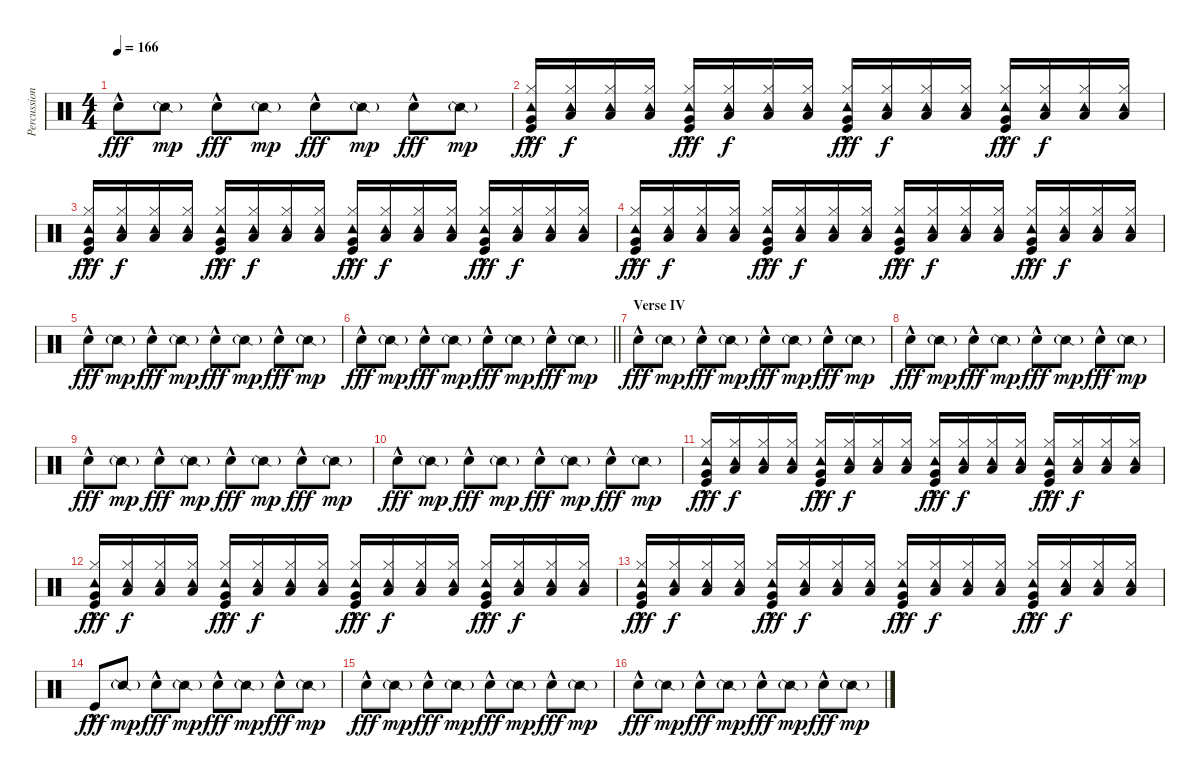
\track ("Percussion" "Percussion") {instrument percussion}
\staff {score}
\articulation defaults
\ts (4 4)
\tempo 166
\clef neutral
\ks c "Snare (hit) 2"{hac}.8{dy fff} "Snare (side stick) 2"{g}.8{dy mp} "Snare (hit) 2"{hac}.8{dy fff} "Snare (side stick) 2"{g}.8{dy mp} "Snare (hit) 2"{hac}.8{dy fff} "Snare (side stick) 2"{g}.8{dy mp} "Snare (hit) 2"{hac}.8{dy fff} "Snare (side stick) 2"{g}.8{dy mp}
|
("Tambourine (hit)" "Hi-Hat (closed)" "Very Low Tom (hit)" "Kick (hit)"{hac}).16{dy fff} ("Tambourine (hit)" "Hi-Hat (closed)" "Low Floor Tom (hit)").16{dy f} ("Tambourine (hit)" "Hi-Hat (closed)" "Low Floor Tom (hit)").16 ("Tambourine (hit)" "Hi-Hat (closed)" "Low Floor Tom (hit)").16 ("Tambourine (hit)" "Hi-Hat (closed)" "Very Low Tom (hit)" "Kick (hit)"{hac}).16{dy fff} ("Tambourine (hit)" "Hi-Hat (closed)" "Low Floor Tom (hit)").16{dy f} ("Tambourine (hit)" "Hi-Hat (closed)" "Low Floor Tom (hit)").16 ("Tambourine (hit)" "Hi-Hat (closed)" "Low Floor Tom (hit)").16 ("Tambourine (hit)" "Hi-Hat (closed)" "Very Low Tom (hit)" "Kick (hit)"{hac}).16{dy fff} ("Tambourine (hit)" "Hi-Hat (closed)" "Low Floor Tom (hit)").16{dy f} ("Tambourine (hit)" "Hi-Hat (closed)" "Low Floor Tom (hit)").16 ("Tambourine (hit)" "Hi-Hat (closed)" "Low Floor Tom (hit)").16 ("Tambourine (hit)" "Hi-Hat (closed)" "Very Low Tom (hit)" "Kick (hit)"{hac}).16{dy fff} ("Tambourine (hit)" "Hi-Hat (closed)" "Low Floor Tom (hit)").16{dy f} ("Tambourine (hit)" "Hi-Hat (closed)" "Low Floor Tom (hit)").16 ("Tambourine (hit)" "Hi-Hat (closed)" "Low Floor Tom (hit)").16 |
("Tambourine (hit)" "Hi-Hat (closed)" "Very Low Tom (hit)" "Kick (hit)"{hac}).16{dy fff} ("Tambourine (hit)" "Hi-Hat (closed)" "Low Floor Tom (hit)").16{dy f} ("Tambourine (hit)" "Hi-Hat (closed)" "Low Floor Tom (hit)").16 ("Tambourine (hit)" "Hi-Hat (closed)" "Low Floor Tom (hit)").16 ("Tambourine (hit)" "Hi-Hat (closed)" "Very Low Tom (hit)" "Kick (hit)"{hac}).16{dy fff} ("Tambourine (hit)" "Hi-Hat (closed)" "Low Floor Tom (hit)").16{dy f} ("Tambourine (hit)" "Hi-Hat (closed)" "Low Floor Tom (hit)").16 ("Tambourine (hit)" "Hi-Hat (closed)" "Low Floor Tom (hit)").16 ("Tambourine (hit)" "Hi-Hat (closed)" "Very Low Tom (hit)" "Kick (hit)"{hac}).16{dy fff} ("Tambourine (hit)" "Hi-Hat (closed)" "Low Floor Tom (hit)").16{dy f} ("Tambourine (hit)" "Hi-Hat (closed)" "Low Floor Tom (hit)").16 ("Tambourine (hit)" "Hi-Hat (closed)" "Low Floor Tom (hit)").16 ("Tambourine (hit)" "Hi-Hat (closed)" "Very Low Tom (hit)" "Kick (hit)"{hac}).16{dy fff} ("Tambourine (hit)" "Hi-Hat (closed)" "Low Floor Tom (hit)").16{dy f} ("Tambourine (hit)" "Hi-Hat (closed)" "Low Floor Tom (hit)").16 ("Tambourine (hit)" "Hi-Hat (closed)" "Low Floor Tom (hit)").16 |
("Tambourine (hit)" "Hi-Hat (closed)" "Very Low Tom (hit)" "Kick (hit)"{hac}).16{dy fff} ("Tambourine (hit)" "Hi-Hat (closed)" "Low Floor Tom (hit)").16{dy f} ("Tambourine (hit)" "Hi-Hat (closed)" "Low Floor Tom (hit)").16 ("Tambourine (hit)" "Hi-Hat (closed)" "Low Floor Tom (hit)").16 ("Tambourine (hit)" "Hi-Hat (closed)" "Very Low Tom (hit)" "Kick (hit)"{hac}).16{dy fff} ("Tambourine (hit)" "Hi-Hat (closed)" "Low Floor Tom (hit)").16{dy f} ("Tambourine (hit)" "Hi-Hat (closed)" "Low Floor Tom (hit)").16 ("Tambourine (hit)" "Hi-Hat (closed)" "Low Floor Tom (hit)").16 ("Tambourine (hit)" "Hi-Hat (closed)" "Very Low Tom (hit)" "Kick (hit)"{hac}).16{dy fff} ("Tambourine (hit)" "Hi-Hat (closed)" "Low Floor Tom (hit)").16{dy f} ("Tambourine (hit)" "Hi-Hat (closed)" "Low Floor Tom (hit)").16 ("Tambourine (hit)" "Hi-Hat (closed)" "Low Floor Tom (hit)").16 ("Tambourine (hit)" "Hi-Hat (closed)" "Very Low Tom (hit)" "Kick (hit)"{hac}).16{dy fff} ("Tambourine (hit)" "Hi-Hat (closed)" "Low Floor Tom (hit)").16{dy f} ("Tambourine (hit)" "Hi-Hat (closed)" "Low Floor Tom (hit)").16 ("Tambourine (hit)" "Hi-Hat (closed)" "Low Floor Tom (hit)").16 |
"Snare (hit) 2"{hac}.8{dy fff} "Snare (side stick) 2"{g}.8{dy mp} "Snare (hit) 2"{hac}.8{dy fff} "Snare (side stick) 2"{g}.8{dy mp} "Snare (hit) 2"{hac}.8{dy fff} "Snare (side stick) 2"{g}.8{dy mp} "Snare (hit) 2"{hac}.8{dy fff} "Snare (side stick) 2"{g}.8{dy mp} |
\barLineRight lightlight "Snare (hit) 2"{hac}.8{dy fff} "Snare (side stick) 2"{g}.8{dy mp} "Snare (hit) 2"{hac}.8{dy fff} "Snare (side stick) 2"{g}.8{dy mp} "Snare (hit) 2"{hac}.8{dy fff} "Snare (side stick) 2"{g}.8{dy mp} "Snare (hit) 2"{hac}.8{dy fff} "Snare (side stick) 2"{g}.8{dy mp}
|
\section ("" "Verse IV")
"Snare (hit) 2"{hac}.8{dy fff} "Snare (side stick) 2"{g}.8{dy mp} "Snare (hit) 2"{hac}.8{dy fff} "Snare (side stick) 2"{g}.8{dy mp} "Snare (hit) 2"{hac}.8{dy fff} "Snare (side stick) 2"{g}.8{dy mp} "Snare (hit) 2"{hac}.8{dy fff} "Snare (side stick) 2"{g}.8{dy mp} |
"Snare (hit) 2"{hac}.8{dy fff} "Snare (side stick) 2"{g}.8{dy mp} "Snare (hit) 2"{hac}.8{dy fff} "Snare (side stick) 2"{g}.8{dy mp} "Snare (hit) 2"{hac}.8{dy fff} "Snare (side stick) 2"{g}.8{dy mp} "Snare (hit) 2"{hac}.8{dy fff} "Snare (side stick) 2"{g}.8{dy mp} |
"Snare (hit) 2"{hac}.8{dy fff} "Snare (side stick) 2"{g}.8{dy mp} "Snare (hit) 2"{hac}.8{dy fff} "Snare (side stick) 2"{g}.8{dy mp} "Snare (hit) 2"{hac}.8{dy fff} "Snare (side stick) 2"{g}.8{dy mp} "Snare (hit) 2"{hac}.8{dy fff} "Snare (side stick) 2"{g}.8{dy mp} |
"Snare (hit) 2"{hac}.8{dy fff} "Snare (side stick) 2"{g}.8{dy mp} "Snare (hit) 2"{hac}.8{dy fff} "Snare (side stick) 2"{g}.8{dy mp} "Snare (hit) 2"{hac}.8{dy fff} "Snare (side stick) 2"{g}.8{dy mp} "Snare (hit) 2"{hac}.8{dy fff} "Snare (side stick) 2"{g}.8{dy mp} |
("Tambourine (hit)" "Hi-Hat (closed)" "Very Low Tom (hit)" "Kick (hit)"{hac}).16{dy fff} ("Tambourine (hit)" "Hi-Hat (closed)" "Low Floor Tom (hit)").16{dy f} ("Tambourine (hit)" "Hi-Hat (closed)" "Low Floor Tom (hit)").16 ("Tambourine (hit)" "Hi-Hat (closed)" "Low Floor Tom (hit)").16 ("Tambourine (hit)" "Hi-Hat (closed)" "Very Low Tom (hit)" "Kick (hit)"{hac}).16{dy fff} ("Tambourine (hit)" "Hi-Hat (closed)" "Low Floor Tom (hit)").16{dy f} ("Tambourine (hit)" "Hi-Hat (closed)" "Low Floor Tom (hit)").16 ("Tambourine (hit)" "Hi-Hat (closed)" "Low Floor Tom (hit)").16 ("Tambourine (hit)" "Hi-Hat (closed)" "Very Low Tom (hit)" "Kick (hit)"{hac}).16{dy fff} ("Tambourine (hit)" "Hi-Hat (closed)" "Low Floor Tom (hit)").16{dy f} ("Tambourine (hit)" "Hi-Hat (closed)" "Low Floor Tom (hit)").16 ("Tambourine (hit)" "Hi-Hat (closed)" "Low Floor Tom (hit)").16 ("Tambourine (hit)" "Hi-Hat (closed)" "Very Low Tom (hit)" "Kick (hit)"{hac}).16{dy fff} ("Tambourine (hit)" "Hi-Hat (closed)" "Low Floor Tom (hit)").16{dy f} ("Tambourine (hit)" "Hi-Hat (closed)" "Low Floor Tom (hit)").16 ("Tambourine (hit)" "Hi-Hat (closed)" "Low Floor Tom (hit)").16 |
("Tambourine (hit)" "Hi-Hat (closed)" "Very Low Tom (hit)" "Kick (hit)"{hac}).16{dy fff} ("Tambourine (hit)" "Hi-Hat (closed)" "Low Floor Tom (hit)").16{dy f} ("Tambourine (hit)" "Hi-Hat (closed)" "Low Floor Tom (hit)").16 ("Tambourine (hit)" "Hi-Hat (closed)" "Low Floor Tom (hit)").16 ("Tambourine (hit)" "Hi-Hat (closed)" "Very Low Tom (hit)" "Kick (hit)"{hac}).16{dy fff} ("Tambourine (hit)" "Hi-Hat (closed)" "Low Floor Tom (hit)").16{dy f} ("Tambourine (hit)" "Hi-Hat (closed)" "Low Floor Tom (hit)").16 ("Tambourine (hit)" "Hi-Hat (closed)" "Low Floor Tom (hit)").16 ("Tambourine (hit)" "Hi-Hat (closed)" "Very Low Tom (hit)" "Kick (hit)"{hac}).16{dy fff} ("Tambourine (hit)" "Hi-Hat (closed)" "Low Floor Tom (hit)").16{dy f} ("Tambourine (hit)" "Hi-Hat (closed)" "Low Floor Tom (hit)").16 ("Tambourine (hit)" "Hi-Hat (closed)" "Low Floor Tom (hit)").16 ("Tambourine (hit)" "Hi-Hat (closed)" "Very Low Tom (hit)" "Kick (hit)"{hac}).16{dy fff} ("Tambourine (hit)" "Hi-Hat (closed)" "Low Floor Tom (hit)").16{dy f} ("Tambourine (hit)" "Hi-Hat (closed)" "Low Floor Tom (hit)").16 ("Tambourine (hit)" "Hi-Hat (closed)" "Low Floor Tom (hit)").16 |
("Tambourine (hit)" "Hi-Hat (closed)" "Very Low Tom (hit)" "Kick (hit)"{hac}).16{dy fff} ("Tambourine (hit)" "Hi-Hat (closed)" "Low Floor Tom (hit)").16{dy f} ("Tambourine (hit)" "Hi-Hat (closed)" "Low Floor Tom (hit)").16 ("Tambourine (hit)" "Hi-Hat (closed)" "Low Floor Tom (hit)").16 ("Tambourine (hit)" "Hi-Hat (closed)" "Very Low Tom (hit)" "Kick (hit)"{hac}).16{dy fff} ("Tambourine (hit)" "Hi-Hat (closed)" "Low Floor Tom (hit)").16{dy f} ("Tambourine (hit)" "Hi-Hat (closed)" "Low Floor Tom (hit)").16 ("Tambourine (hit)" "Hi-Hat (closed)" "Low Floor Tom (hit)").16 ("Tambourine (hit)" "Hi-Hat (closed)" "Very Low Tom (hit)" "Kick (hit)"{hac}).16{dy fff} ("Tambourine (hit)" "Hi-Hat (closed)" "Low Floor Tom (hit)").16{dy f} ("Tambourine (hit)" "Hi-Hat (closed)" "Low Floor Tom (hit)").16 ("Tambourine (hit)" "Hi-Hat (closed)" "Low Floor Tom (hit)").16 ("Tambourine (hit)" "Hi-Hat (closed)" "Very Low Tom (hit)" "Kick (hit)"{hac}).16{dy fff} ("Tambourine (hit)" "Hi-Hat (closed)" "Low Floor Tom (hit)").16{dy f} ("Tambourine (hit)" "Hi-Hat (closed)" "Low Floor Tom (hit)").16 ("Tambourine (hit)" "Hi-Hat (closed)" "Low Floor Tom (hit)").16 |
"Kick (hit)"{hac}.8{dy fff} "Snare (side stick) 2"{g}.8{dy mp} "Snare (hit) 2"{hac}.8{dy fff} "Snare (side stick) 2"{g}.8{dy mp} "Snare (hit) 2"{hac}.8{dy fff} "Snare (side stick) 2"{g}.8{dy mp} "Snare (hit) 2"{hac}.8{dy fff} "Snare (side stick) 2"{g}.8{dy mp} |
"Snare (hit) 2"{hac}.8{dy fff} "Snare (side stick) 2"{g}.8{dy mp} "Snare (hit) 2"{hac}.8{dy fff} "Snare (side stick) 2"{g}.8{dy mp} "Snare (hit) 2"{hac}.8{dy fff} "Snare (side stick) 2"{g}.8{dy mp} "Snare (hit) 2"{hac}.8{dy fff} "Snare (side stick) 2"{g}.8{dy mp} |
"Snare (hit) 2"{hac}.8{dy fff} "Snare (side stick) 2"{g}.8{dy mp} "Snare (hit) 2"{hac}.8{dy fff} "Snare (side stick) 2"{g}.8{dy mp} "Snare (hit) 2"{hac}.8{dy fff} "Snare (side stick) 2"{g}.8{dy mp} "Snare (hit) 2"{hac}.8{dy fff} "Snare (side stick) 2"{g}.8{dy mp}
